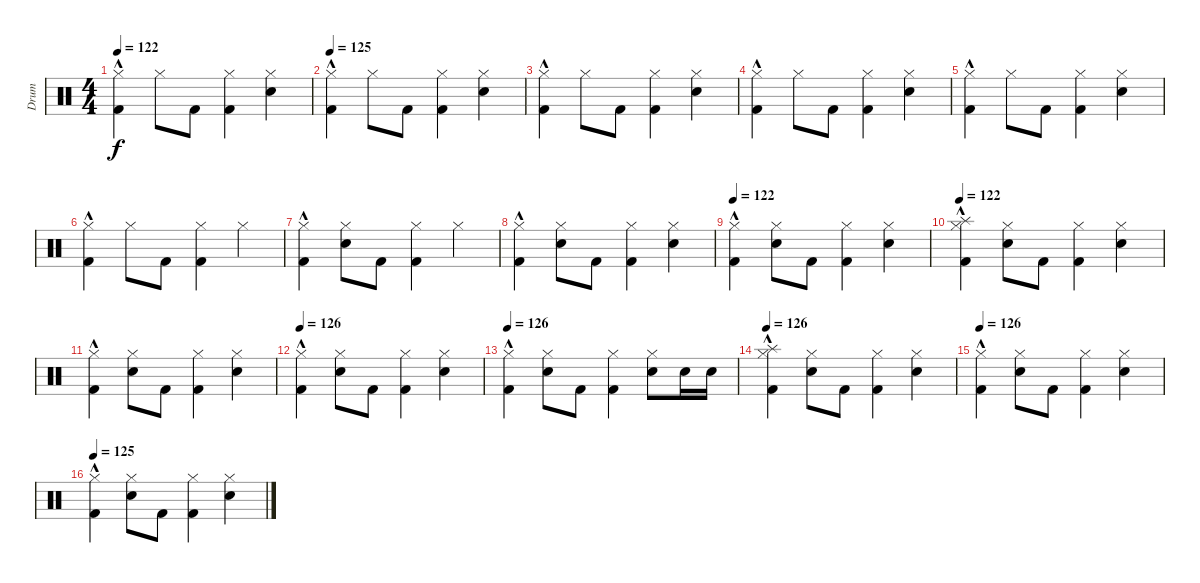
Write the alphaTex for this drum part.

\track ("Drum" "Drum") {instrument percussion}
\staff {score}
\articulation defaults
\ts (4 4)
\tempo 122
\clef neutral
\ks c
("Hi-Hat (closed)" "Kick (hit) 2"{hac}).4{dy f} "Hi-Hat (closed)".8 "Kick (hit) 2".8 ("Hi-Hat (closed)" "Kick (hit) 2").4 ("Hi-Hat (closed)" "Electric Snare (hit)").4 |
\tempo 125
("Hi-Hat (closed)" "Kick (hit) 2"{hac}).4 "Hi-Hat (closed)".8 "Kick (hit) 2".8 ("Hi-Hat (closed)" "Kick (hit) 2").4 ("Hi-Hat (closed)" "Electric Snare (hit)").4 |
("Hi-Hat (closed)" "Kick (hit) 2"{hac}).4 "Hi-Hat (closed)".8 "Kick (hit) 2".8 ("Hi-Hat (closed)" "Kick (hit) 2").4 ("Hi-Hat (closed)" "Electric Snare (hit)").4 |
("Hi-Hat (closed)" "Kick (hit) 2"{hac}).4 "Hi-Hat (closed)".8 "Kick (hit) 2".8 ("Hi-Hat (closed)" "Kick (hit) 2").4 ("Hi-Hat (closed)" "Electric Snare (hit)").4 |
("Hi-Hat (closed)" "Kick (hit) 2"{hac}).4 "Hi-Hat (closed)".8 "Kick (hit) 2".8 ("Hi-Hat (closed)" "Kick (hit) 2").4 ("Hi-Hat (closed)" "Electric Snare (hit)").4 |
("Hi-Hat (closed)" "Kick (hit) 2"{hac}).4 "Hi-Hat (closed)".8 "Kick (hit) 2".8 ("Hi-Hat (closed)" "Kick (hit) 2").4 "Hi-Hat (closed)".4 |
("Kick (hit) 2"{hac} "Hi-Hat (closed)").4 ("Hi-Hat (closed)" "Electric Snare (hit)").8 "Kick (hit) 2".8 ("Kick (hit) 2" "Hi-Hat (closed)").4 "Hi-Hat (closed)".4 |
("Hi-Hat (closed)" "Kick (hit) 2"{hac}).4 ("Electric Snare (hit)" "Hi-Hat (closed)").8 "Kick (hit) 2".8 ("Hi-Hat (closed)" "Kick (hit) 2").4 ("Hi-Hat (closed)" "Electric Snare (hit)").4 |
\tempo 122
("Kick (hit) 2"{hac} "Hi-Hat (closed)").4 ("Hi-Hat (closed)" "Electric Snare (hit)").8 "Kick (hit) 2".8 ("Hi-Hat (closed)" "Kick (hit) 2").4 ("Hi-Hat (closed)" "Electric Snare (hit)").4 |
\tempo 122
("Splash (hit)" "Hi-Hat (closed)" "Kick (hit) 2"{hac}).4 ("Hi-Hat (closed)" "Electric Snare (hit)").8 "Kick (hit) 2".8 ("Kick (hit) 2" "Hi-Hat (closed)").4 ("Electric Snare (hit)" "Hi-Hat (closed)").4 |
("Hi-Hat (closed)" "Kick (hit) 2"{hac}).4 ("Electric Snare (hit)" "Hi-Hat (closed)").8 "Kick (hit) 2".8 ("Hi-Hat (closed)" "Kick (hit) 2").4 ("Hi-Hat (closed)" "Electric Snare (hit)").4 |
\tempo 126
("Kick (hit) 2"{hac} "Hi-Hat (closed)").4 ("Hi-Hat (closed)" "Electric Snare (hit)").8 "Kick (hit) 2".8 ("Hi-Hat (closed)" "Kick (hit) 2").4 ("Electric Snare (hit)" "Hi-Hat (closed)").4 |
\tempo 126
("Hi-Hat (closed)" "Kick (hit) 2"{hac}).4 ("Hi-Hat (closed)" "Electric Snare (hit)").8 "Kick (hit) 2".8 ("Hi-Hat (closed)" "Kick (hit) 2").4 ("Hi-Hat (closed)" "Electric Snare (hit)").8 "Electric Snare (hit)".16 "Electric Snare (hit)".16 |
\tempo 126
("Splash (hit)" "Kick (hit) 2"{hac} "Hi-Hat (closed)").4 ("Electric Snare (hit)" "Hi-Hat (closed)").8 "Kick (hit) 2".8 ("Hi-Hat (closed)" "Kick (hit) 2").4 ("Electric Snare (hit)" "Hi-Hat (closed)").4 |
\tempo 126
("Kick (hit) 2"{hac} "Hi-Hat (closed)").4 ("Hi-Hat (closed)" "Electric Snare (hit)").8 "Kick (hit) 2".8 ("Kick (hit) 2" "Hi-Hat (closed)").4 ("Electric Snare (hit)" "Hi-Hat (closed)").4 |
\tempo 125
("Kick (hit) 2"{hac} "Hi-Hat (closed)").4 ("Electric Snare (hit)" "Hi-Hat (closed)").8 "Kick (hit) 2".8 ("Kick (hit) 2" "Hi-Hat (closed)").4 ("Hi-Hat (closed)" "Electric Snare (hit)").4
